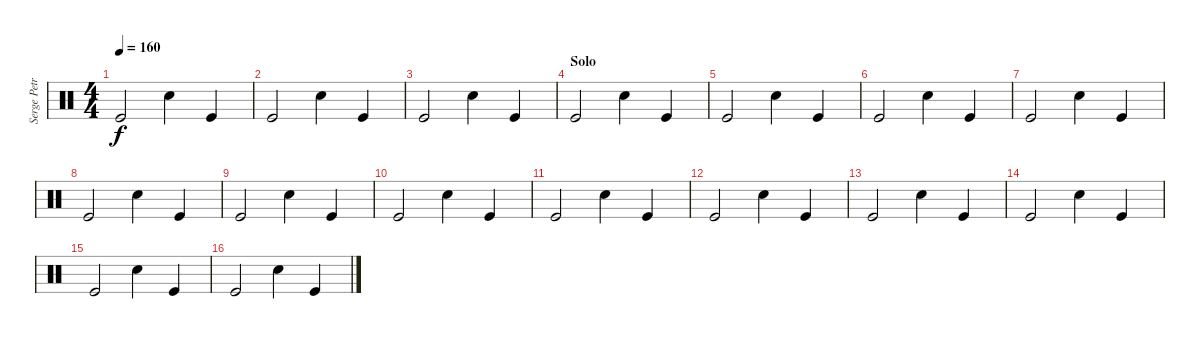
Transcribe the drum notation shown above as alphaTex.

\track ("Serge Petrone" "Serge Petr") {instrument percussion}
\staff {score}
\articulation defaults
\ts (4 4)
\tempo 160
\clef neutral
\ks c "Kick (hit)".2{dy f} "Snare (hit) 2".4 "Kick (hit)".4
|
"Kick (hit)".2 "Snare (hit) 2".4 "Kick (hit)".4 |
"Kick (hit)".2 "Snare (hit) 2".4 "Kick (hit)".4 |
\section ("" "Solo")
"Kick (hit)".2 "Snare (hit) 2".4 "Kick (hit)".4 |
"Kick (hit)".2 "Snare (hit) 2".4 "Kick (hit)".4 |
"Kick (hit)".2 "Snare (hit) 2".4 "Kick (hit)".4 |
"Kick (hit)".2 "Snare (hit) 2".4 "Kick (hit)".4 |
"Kick (hit)".2 "Snare (hit) 2".4 "Kick (hit)".4 |
"Kick (hit)".2 "Snare (hit) 2".4 "Kick (hit)".4 |
"Kick (hit)".2 "Snare (hit) 2".4 "Kick (hit)".4 |
"Kick (hit)".2 "Snare (hit) 2".4 "Kick (hit)".4 |
"Kick (hit)".2 "Snare (hit) 2".4 "Kick (hit)".4 |
"Kick (hit)".2 "Snare (hit) 2".4 "Kick (hit)".4 |
"Kick (hit)".2 "Snare (hit) 2".4 "Kick (hit)".4 |
"Kick (hit)".2 "Snare (hit) 2".4 "Kick (hit)".4 |
"Kick (hit)".2 "Snare (hit) 2".4 "Kick (hit)".4
